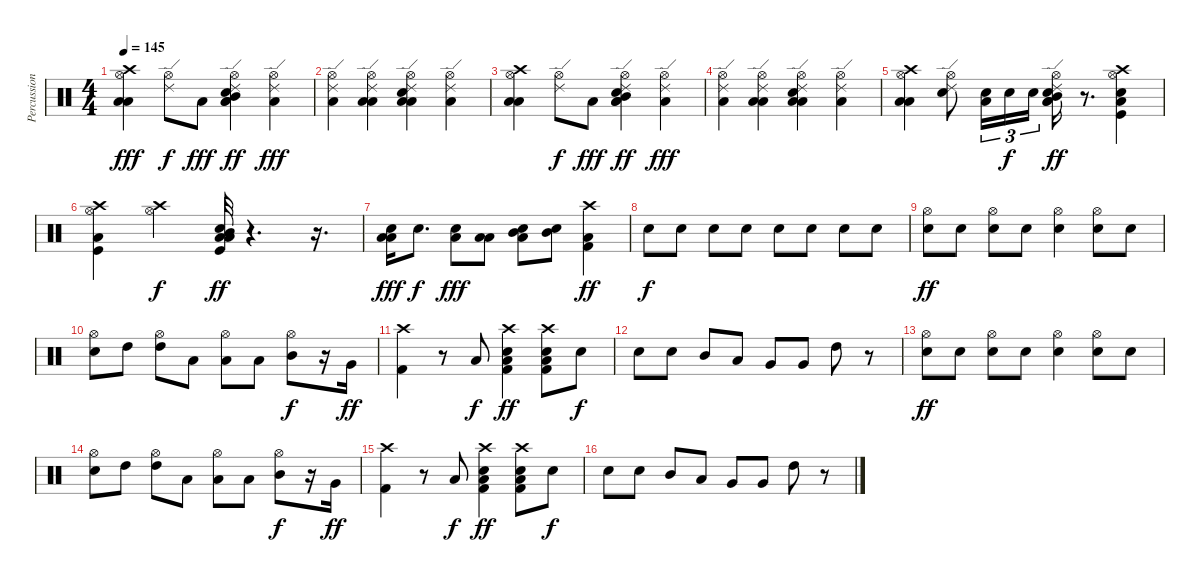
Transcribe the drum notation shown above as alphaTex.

\track ("Percussion" "Percussion") {instrument percussion}
\staff {score}
\articulation defaults
\ts (4 4)
\tempo 145
\clef neutral
\ks c
("Crash high (hit)" "Hi-Hat (open)" "Low Tom (hit)" "Low Floor Tom (hit)").4{dy fff} ("Ride (edge) 2" "Hi-Hat (open)").8{dy f} "Low Floor Tom (hit)".8{dy fff} ("Ride (edge) 2" "Mid Tom (hit)" "Low Tom (hit)" "Snare (hit) 2" "Low Floor Tom (hit)" "Hi-Hat (open)").4{dy ff} ("Ride (edge) 2" "Hi-Hat (open)" "Low Floor Tom (hit)").4{dy fff} |
("Ride (edge) 2" "Hi-Hat (open)" "Low Floor Tom (hit)").4 ("Ride (edge) 2" "Hi-Hat (open)" "Low Tom (hit)" "Low Floor Tom (hit)").4 ("Ride (edge) 2" "Hi-Hat (open)" "Snare (hit) 2" "Low Tom (hit)" "Low Floor Tom (hit)").4 ("Ride (edge) 2" "Hi-Hat (open)" "Low Floor Tom (hit)").4 |
("Crash high (hit)" "Hi-Hat (open)" "Low Tom (hit)" "Low Floor Tom (hit)").4 ("Ride (edge) 2" "Hi-Hat (open)").8{dy f} "Low Floor Tom (hit)".8{dy fff} ("Ride (edge) 2" "Mid Tom (hit)" "Low Tom (hit)" "Snare (hit) 2" "Low Floor Tom (hit)" "Hi-Hat (open)").4{dy ff} ("Ride (edge) 2" "Hi-Hat (open)" "Low Floor Tom (hit)").4{dy fff} |
("Ride (edge) 2" "Hi-Hat (open)" "Low Floor Tom (hit)").4 ("Ride (edge) 2" "Hi-Hat (open)" "Low Tom (hit)" "Low Floor Tom (hit)").4 ("Ride (edge) 2" "Hi-Hat (open)" "Snare (hit) 2" "Low Tom (hit)" "Low Floor Tom (hit)").4 ("Ride (edge) 2" "Hi-Hat (open)" "Low Floor Tom (hit)").4 |
("Crash high (hit)" "Hi-Hat (open)" "Low Tom (hit)" "Low Floor Tom (hit)").4 ("Ride (edge) 2" "Hi-Hat (open)" "Snare (hit) 2").8 ("Snare (hit) 2" "Low Floor Tom (hit)").16{tu (3 2)} "Snare (hit) 2".16{tu (3 2) dy f} "Snare (hit) 2".16{tu (3 2)} ("Ride (edge) 2" "Mid Tom (hit)" "Low Tom (hit)" "Snare (hit) 2" "Low Floor Tom (hit)" "Hi-Hat (open)").16{dy ff} r.8{d} ("Crash high (hit)" "Hi-Hat (open)" "Snare (hit) 2" "Low Floor Tom (hit)" "Kick (hit)").4 |
("Crash high (hit)" "Hi-Hat (open)" "Low Floor Tom (hit)" "Kick (hit)").4 ("Crash high (hit)" "Hi-Hat (open)").4{dy f} ("Mid Tom (hit)" "Snare (hit) 2" "Low Tom (hit)" "Low Floor Tom (hit)" "Kick (hit)").32{dy ff} r.4{d} r.16{d} |
("Low Tom (hit)" "Snare (hit) 2" "Low Floor Tom (hit)").16{dy fff} "Snare (hit) 2".8{d dy f} ("Snare (hit) 2" "Low Tom (hit)").8{dy fff} ("Low Tom (hit)" "Low Floor Tom (hit)").8 ("Mid Tom (hit)" "Snare (hit) 2" "Low Floor Tom (hit)").8 ("Mid Tom (hit)" "Snare (hit) 2").8 ("Crash high (hit)" "Low Floor Tom (hit)" "Kick (hit) 2").4{dy ff} |
"Snare (hit) 2".8{dy f} "Snare (hit) 2".8 "Snare (hit) 2".8 "Snare (hit) 2".8 "Snare (hit) 2".8 "Snare (hit) 2".8 "Snare (hit) 2".8 "Snare (hit) 2".8 |
("Hi-Hat (open)" "Snare (hit) 2").8{dy ff} "Snare (hit) 2".8 ("Hi-Hat (open)" "Snare (hit) 2").8 "Snare (hit) 2".8 ("Hi-Hat (open)" "Snare (hit) 2").4 ("Hi-Hat (open)" "Snare (hit) 2").8 "Snare (hit) 2".8 |
("Hi-Hat (open)" "Snare (hit) 2").8 "High Tom (hit)".8 ("Hi-Hat (open)" "High Tom (hit)").8 "Low Tom (hit)".8 ("Hi-Hat (open)" "Low Tom (hit)").8 "Low Tom (hit)".8 ("Hi-Hat (open)" "Mid Tom (hit)").8{dy f} r.16 "Very Low Tom (hit)".16{dy ff} |
("Crash high (hit)" "Kick (hit) 2").4 r.8 "Low Floor Tom (hit)".8{dy f} ("Crash high (hit)" "Snare (hit) 2" "Low Floor Tom (hit)" "Kick (hit) 2").4{dy ff} ("Crash high (hit)" "Snare (hit) 2" "Low Floor Tom (hit)" "Kick (hit) 2").8 "Snare (hit) 2".8{dy f} |
"Snare (hit) 2".8 "Snare (hit) 2".8 "Mid Tom (hit)".8 "Low Tom (hit)".8 "Very Low Tom (hit)".8 "Very Low Tom (hit)".8 "High Tom (hit)".8 r.8 |
("Hi-Hat (open)" "Snare (hit) 2").8{dy ff} "Snare (hit) 2".8 ("Hi-Hat (open)" "Snare (hit) 2").8 "Snare (hit) 2".8 ("Hi-Hat (open)" "Snare (hit) 2").4 ("Hi-Hat (open)" "Snare (hit) 2").8 "Snare (hit) 2".8 |
("Hi-Hat (open)" "Snare (hit) 2").8 "High Tom (hit)".8 ("Hi-Hat (open)" "High Tom (hit)").8 "Low Tom (hit)".8 ("Hi-Hat (open)" "Low Tom (hit)").8 "Low Tom (hit)".8 ("Hi-Hat (open)" "Mid Tom (hit)").8{dy f} r.16 "Very Low Tom (hit)".16{dy ff} |
("Crash high (hit)" "Kick (hit) 2").4 r.8 "Low Floor Tom (hit)".8{dy f} ("Crash high (hit)" "Snare (hit) 2" "Low Floor Tom (hit)" "Kick (hit) 2").4{dy ff} ("Crash high (hit)" "Snare (hit) 2" "Low Floor Tom (hit)" "Kick (hit) 2").8 "Snare (hit) 2".8{dy f} |
"Snare (hit) 2".8 "Snare (hit) 2".8 "Mid Tom (hit)".8 "Low Tom (hit)".8 "Very Low Tom (hit)".8 "Very Low Tom (hit)".8 "High Tom (hit)".8 r.8
